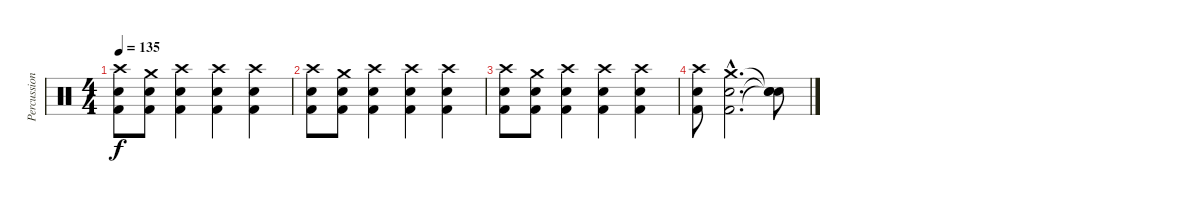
\track ("Percussions" "Percussion") {instrument percussion}
\staff {score}
\articulation defaults
\ts (4 4)
\tempo 135
\clef neutral
\ks c
("Electric Snare (hit)" "Kick (hit) 2" "Crash high (hit)").8{dy f} ("Electric Snare (hit)" "Kick (hit) 2" "Crash medium (hit)").8 ("Crash high (hit)" "Electric Snare (hit)" "Kick (hit) 2").4 ("Crash high (hit)" "Electric Snare (hit)" "Kick (hit) 2").4 ("Crash high (hit)" "Electric Snare (hit)" "Kick (hit) 2").4 |
("Electric Snare (hit)" "Kick (hit) 2" "Crash high (hit)").8 ("Electric Snare (hit)" "Kick (hit) 2" "Crash medium (hit)").8 ("Crash high (hit)" "Electric Snare (hit)" "Kick (hit) 2").4 ("Crash high (hit)" "Electric Snare (hit)" "Kick (hit) 2").4 ("Crash high (hit)" "Electric Snare (hit)" "Kick (hit) 2").4 |
("Electric Snare (hit)" "Kick (hit) 2" "Crash high (hit)").8 ("Electric Snare (hit)" "Kick (hit) 2" "Crash medium (hit)").8 ("Crash high (hit)" "Electric Snare (hit)" "Kick (hit) 2").4 ("Crash high (hit)" "Electric Snare (hit)" "Kick (hit) 2").4 ("Crash high (hit)" "Electric Snare (hit)" "Kick (hit) 2").4 |
("Electric Snare (hit)" "Kick (hit) 2" "Crash high (hit)").8 ("Electric Snare (hit)"{hac} "Kick (hit) 2"{hac} "Crash medium (hit)"{hac}).2{d} ("Snare (hit)"{t} "Snare (hit)"{t} "Snare (hit)"{t}).8
